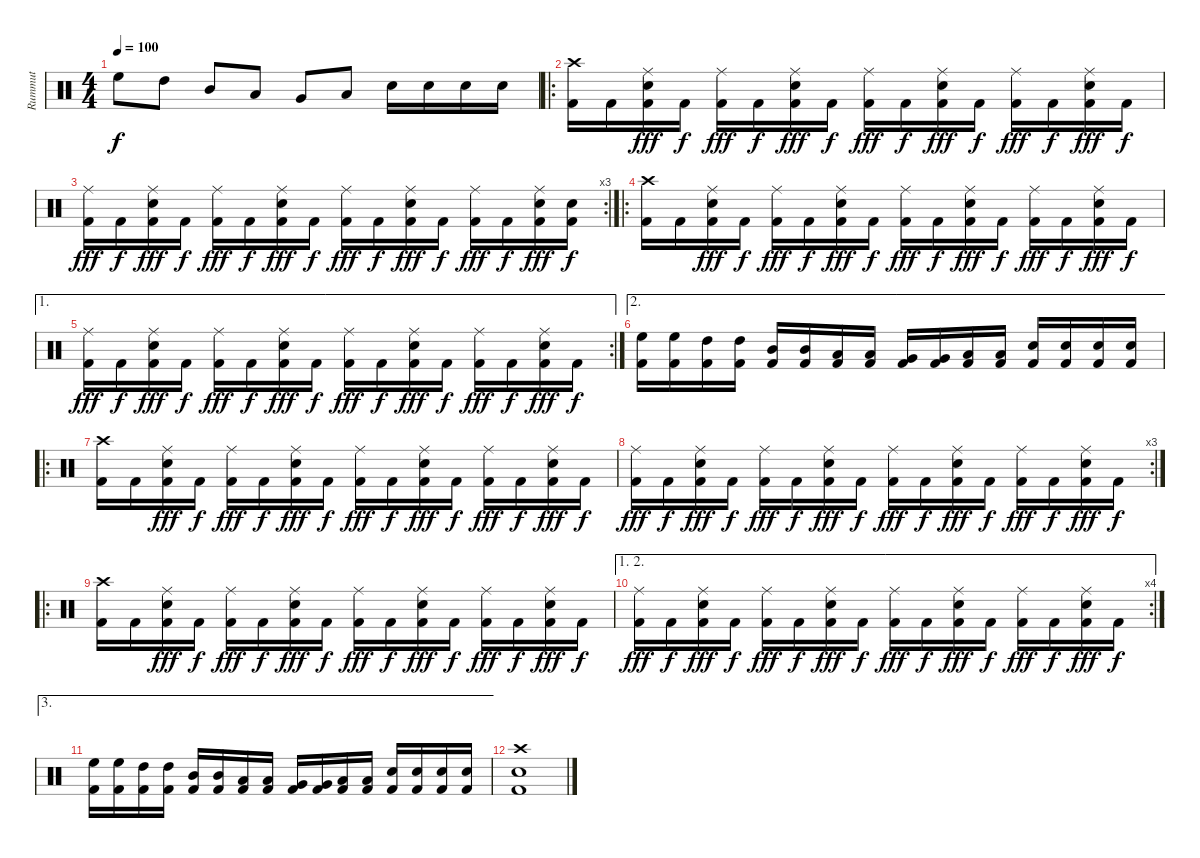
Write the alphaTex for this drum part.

\track ("Rummut" "Rummut") {instrument percussion}
\staff {score}
\articulation defaults
\ts (4 4)
\tempo 100
\clef neutral
\ks c "High Floor Tom (hit)".8{dy f} "High Tom (hit)".8 "Mid Tom (hit)".8 "Low Tom (hit)".8 "Very Low Tom (hit)".8 "Low Floor Tom (hit)".8 "Electric Snare (hit)".16 "Electric Snare (hit)".16 "Electric Snare (hit)".16 "Electric Snare (hit)".16
|
\ro
("Crash high (hit)" "Kick (hit) 2").16 "Kick (hit) 2".16 ("Ride (middle)" "Electric Snare (hit)" "Kick (hit) 2").16{dy fff} "Kick (hit) 2".16{dy f} ("Ride (middle)" "Kick (hit) 2").16{dy fff} "Kick (hit) 2".16{dy f} ("Ride (middle)" "Electric Snare (hit)" "Kick (hit) 2").16{dy fff} "Kick (hit) 2".16{dy f} ("Ride (middle)" "Kick (hit) 2").16{dy fff} "Kick (hit) 2".16{dy f} ("Ride (middle)" "Electric Snare (hit)" "Kick (hit) 2").16{dy fff} "Kick (hit) 2".16{dy f} ("Ride (middle)" "Kick (hit) 2").16{dy fff} "Kick (hit) 2".16{dy f} ("Ride (middle)" "Electric Snare (hit)" "Kick (hit) 2").16{dy fff} "Kick (hit) 2".16{dy f} |
\rc 3
("Ride (middle)" "Kick (hit) 2").16{dy fff} "Kick (hit) 2".16{dy f} ("Ride (middle)" "Electric Snare (hit)" "Kick (hit) 2").16{dy fff} "Kick (hit) 2".16{dy f} ("Ride (middle)" "Kick (hit) 2").16{dy fff} "Kick (hit) 2".16{dy f} ("Ride (middle)" "Electric Snare (hit)" "Kick (hit) 2").16{dy fff} "Kick (hit) 2".16{dy f} ("Ride (middle)" "Kick (hit) 2").16{dy fff} "Kick (hit) 2".16{dy f} ("Ride (middle)" "Electric Snare (hit)" "Kick (hit) 2").16{dy fff} "Kick (hit) 2".16{dy f} ("Ride (middle)" "Kick (hit) 2").16{dy fff} "Kick (hit) 2".16{dy f} ("Ride (middle)" "Electric Snare (hit)" "Kick (hit) 2").16{dy fff} ("Electric Snare (hit)" "Kick (hit) 2").16{dy f} |
\ro
("Crash high (hit)" "Kick (hit) 2").16 "Kick (hit) 2".16 ("Ride (middle)" "Electric Snare (hit)" "Kick (hit) 2").16{dy fff} "Kick (hit) 2".16{dy f} ("Ride (middle)" "Kick (hit) 2").16{dy fff} "Kick (hit) 2".16{dy f} ("Ride (middle)" "Electric Snare (hit)" "Kick (hit) 2").16{dy fff} "Kick (hit) 2".16{dy f} ("Ride (middle)" "Kick (hit) 2").16{dy fff} "Kick (hit) 2".16{dy f} ("Ride (middle)" "Electric Snare (hit)" "Kick (hit) 2").16{dy fff} "Kick (hit) 2".16{dy f} ("Ride (middle)" "Kick (hit) 2").16{dy fff} "Kick (hit) 2".16{dy f} ("Ride (middle)" "Electric Snare (hit)" "Kick (hit) 2").16{dy fff} "Kick (hit) 2".16{dy f} |
\ae 1
\rc 2
("Ride (middle)" "Kick (hit) 2").16{dy fff} "Kick (hit) 2".16{dy f} ("Ride (middle)" "Electric Snare (hit)" "Kick (hit) 2").16{dy fff} "Kick (hit) 2".16{dy f} ("Ride (middle)" "Kick (hit) 2").16{dy fff} "Kick (hit) 2".16{dy f} ("Ride (middle)" "Electric Snare (hit)" "Kick (hit) 2").16{dy fff} "Kick (hit) 2".16{dy f} ("Ride (middle)" "Kick (hit) 2").16{dy fff} "Kick (hit) 2".16{dy f} ("Ride (middle)" "Electric Snare (hit)" "Kick (hit) 2").16{dy fff} "Kick (hit) 2".16{dy f} ("Ride (middle)" "Kick (hit) 2").16{dy fff} "Kick (hit) 2".16{dy f} ("Ride (middle)" "Electric Snare (hit)" "Kick (hit) 2").16{dy fff} "Kick (hit) 2".16{dy f} |
\ae 2
("High Floor Tom (hit)" "Kick (hit) 2").16 ("High Floor Tom (hit)" "Kick (hit) 2").16 ("High Tom (hit)" "Kick (hit) 2").16 ("High Tom (hit)" "Kick (hit) 2").16 ("Mid Tom (hit)" "Kick (hit) 2").16 ("Mid Tom (hit)" "Kick (hit) 2").16 ("Low Tom (hit)" "Kick (hit) 2").16 ("Low Tom (hit)" "Kick (hit) 2").16 ("Very Low Tom (hit)" "Kick (hit) 2").16 ("Very Low Tom (hit)" "Kick (hit) 2").16 ("Low Floor Tom (hit)" "Kick (hit) 2").16 ("Low Floor Tom (hit)" "Kick (hit) 2").16 ("Electric Snare (hit)" "Kick (hit) 2").16 ("Electric Snare (hit)" "Kick (hit) 2").16 ("Snare (hit) 2" "Kick (hit) 2").16 ("Snare (hit) 2" "Kick (hit) 2").16 |
\ro
("Crash high (hit)" "Kick (hit) 2").16 "Kick (hit) 2".16 ("Ride (middle)" "Electric Snare (hit)" "Kick (hit) 2").16{dy fff} "Kick (hit) 2".16{dy f} ("Ride (middle)" "Kick (hit) 2").16{dy fff} "Kick (hit) 2".16{dy f} ("Ride (middle)" "Electric Snare (hit)" "Kick (hit) 2").16{dy fff} "Kick (hit) 2".16{dy f} ("Ride (middle)" "Kick (hit) 2").16{dy fff} "Kick (hit) 2".16{dy f} ("Ride (middle)" "Electric Snare (hit)" "Kick (hit) 2").16{dy fff} "Kick (hit) 2".16{dy f} ("Ride (middle)" "Kick (hit) 2").16{dy fff} "Kick (hit) 2".16{dy f} ("Ride (middle)" "Electric Snare (hit)" "Kick (hit) 2").16{dy fff} "Kick (hit) 2".16{dy f} |
\rc 3
("Ride (middle)" "Kick (hit) 2").16{dy fff} "Kick (hit) 2".16{dy f} ("Ride (middle)" "Electric Snare (hit)" "Kick (hit) 2").16{dy fff} "Kick (hit) 2".16{dy f} ("Ride (middle)" "Kick (hit) 2").16{dy fff} "Kick (hit) 2".16{dy f} ("Ride (middle)" "Electric Snare (hit)" "Kick (hit) 2").16{dy fff} "Kick (hit) 2".16{dy f} ("Ride (middle)" "Kick (hit) 2").16{dy fff} "Kick (hit) 2".16{dy f} ("Ride (middle)" "Electric Snare (hit)" "Kick (hit) 2").16{dy fff} "Kick (hit) 2".16{dy f} ("Ride (middle)" "Kick (hit) 2").16{dy fff} "Kick (hit) 2".16{dy f} ("Ride (middle)" "Electric Snare (hit)" "Kick (hit) 2").16{dy fff} "Kick (hit) 2".16{dy f} |
\ro
("Crash high (hit)" "Kick (hit) 2").16 "Kick (hit) 2".16 ("Ride (middle)" "Electric Snare (hit)" "Kick (hit) 2").16{dy fff} "Kick (hit) 2".16{dy f} ("Ride (middle)" "Kick (hit) 2").16{dy fff} "Kick (hit) 2".16{dy f} ("Ride (middle)" "Electric Snare (hit)" "Kick (hit) 2").16{dy fff} "Kick (hit) 2".16{dy f} ("Ride (middle)" "Kick (hit) 2").16{dy fff} "Kick (hit) 2".16{dy f} ("Ride (middle)" "Electric Snare (hit)" "Kick (hit) 2").16{dy fff} "Kick (hit) 2".16{dy f} ("Ride (middle)" "Kick (hit) 2").16{dy fff} "Kick (hit) 2".16{dy f} ("Ride (middle)" "Electric Snare (hit)" "Kick (hit) 2").16{dy fff} "Kick (hit) 2".16{dy f} |
\ae (1 2)
\rc 4
("Ride (middle)" "Kick (hit) 2").16{dy fff} "Kick (hit) 2".16{dy f} ("Ride (middle)" "Electric Snare (hit)" "Kick (hit) 2").16{dy fff} "Kick (hit) 2".16{dy f} ("Ride (middle)" "Kick (hit) 2").16{dy fff} "Kick (hit) 2".16{dy f} ("Ride (middle)" "Electric Snare (hit)" "Kick (hit) 2").16{dy fff} "Kick (hit) 2".16{dy f} ("Ride (middle)" "Kick (hit) 2").16{dy fff} "Kick (hit) 2".16{dy f} ("Ride (middle)" "Electric Snare (hit)" "Kick (hit) 2").16{dy fff} "Kick (hit) 2".16{dy f} ("Ride (middle)" "Kick (hit) 2").16{dy fff} "Kick (hit) 2".16{dy f} ("Ride (middle)" "Electric Snare (hit)" "Kick (hit) 2").16{dy fff} "Kick (hit) 2".16{dy f} |
\ae 3
("High Floor Tom (hit)" "Kick (hit) 2").16 ("High Floor Tom (hit)" "Kick (hit) 2").16 ("High Tom (hit)" "Kick (hit) 2").16 ("High Tom (hit)" "Kick (hit) 2").16 ("Mid Tom (hit)" "Kick (hit) 2").16 ("Mid Tom (hit)" "Kick (hit) 2").16 ("Low Tom (hit)" "Kick (hit) 2").16 ("Low Tom (hit)" "Kick (hit) 2").16 ("Very Low Tom (hit)" "Kick (hit) 2").16 ("Very Low Tom (hit)" "Kick (hit) 2").16 ("Low Floor Tom (hit)" "Kick (hit) 2").16 ("Low Floor Tom (hit)" "Kick (hit) 2").16 ("Electric Snare (hit)" "Kick (hit) 2").16 ("Electric Snare (hit)" "Kick (hit) 2").16 ("Snare (hit) 2" "Kick (hit) 2").16 ("Snare (hit) 2" "Kick (hit) 2").16 |
("Crash high (hit)" "Kick (hit) 2" "Electric Snare (hit)").1
